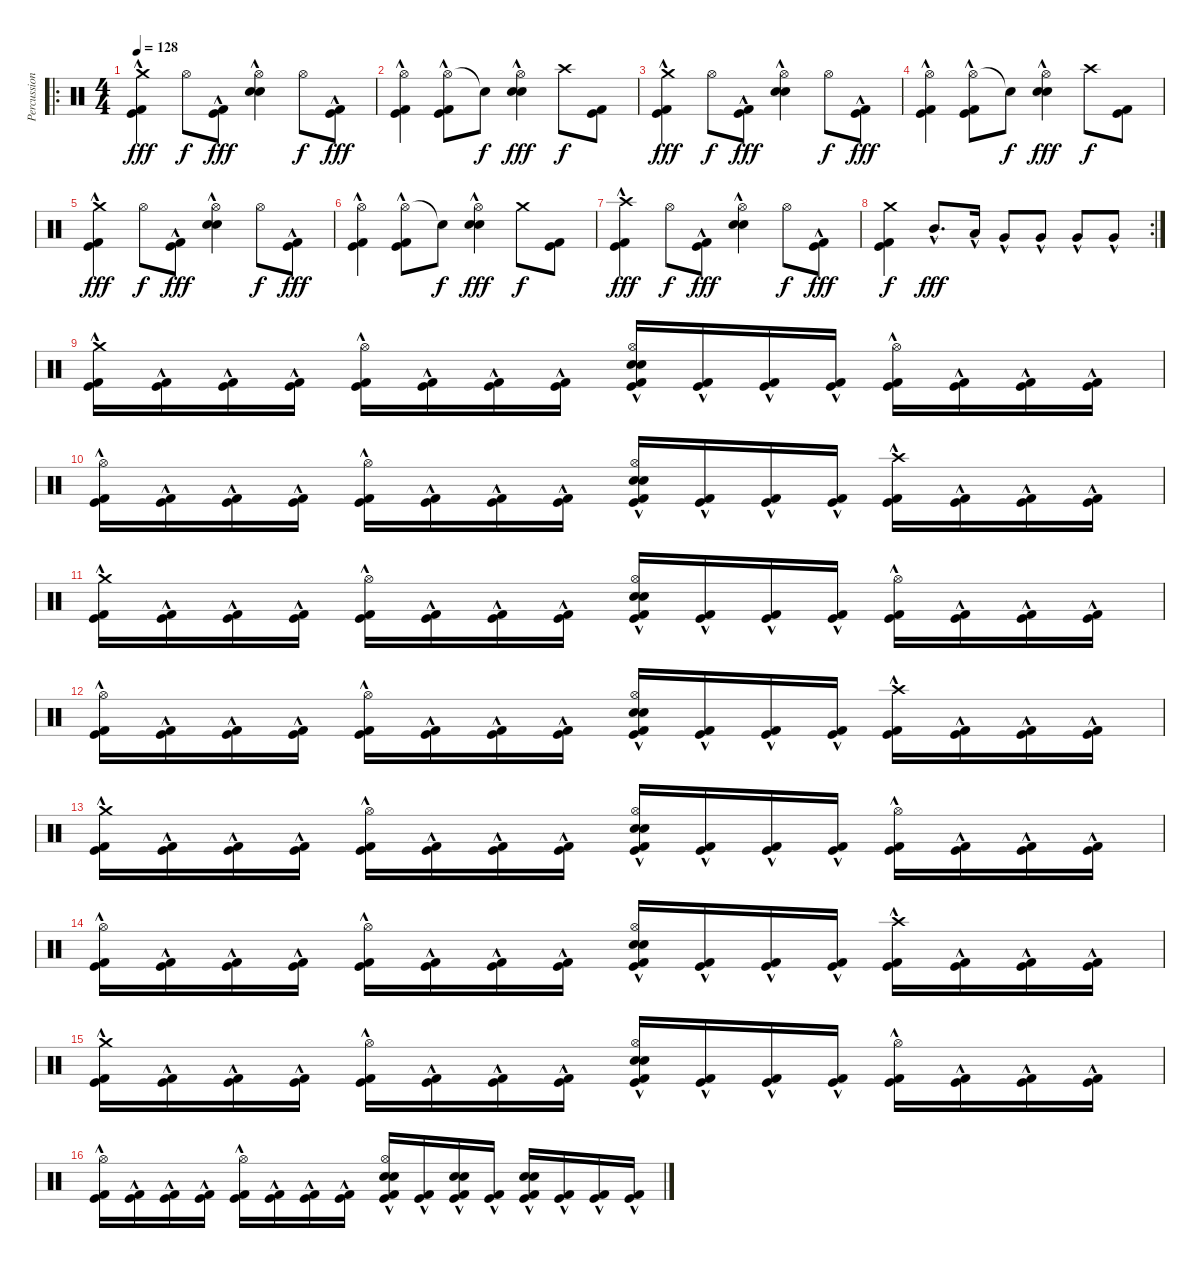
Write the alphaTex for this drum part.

\track ("Percussion" "Percussion") {instrument percussion}
\staff {score}
\articulation defaults
\ro
\ts (4 4)
\tempo 128
\clef neutral
\ks c
("Crash medium (hit)" "Kick (hit)"{hac} "Kick (hit) 2"{hac}).4{dy fff} "Hi-Hat (open)".8{dy f} ("Kick (hit)"{hac} "Kick (hit) 2"{hac}).8{dy fff} ("Hi-Hat (open)" "Electric Snare (hit)"{hac} "Snare (hit) 2"{hac}).4 "Hi-Hat (open)".8{dy f} ("Kick (hit)"{hac} "Kick (hit) 2"{hac}).8{dy fff} |
("Hi-Hat (open)" "Kick (hit)"{hac} "Kick (hit) 2"{hac}).4 ("Hi-Hat (open)" "Kick (hit)"{hac} "Kick (hit) 2"{hac}).8 "Snare (hit)"{t}.8{dy f} ("Hi-Hat (open)" "Electric Snare (hit)"{hac} "Snare (hit) 2"{hac}).4{dy fff} "Crash high (hit)".8{dy f} ("Kick (hit)" "Kick (hit) 2").8 |
("Crash medium (hit)" "Kick (hit)"{hac} "Kick (hit) 2"{hac}).4{dy fff} "Hi-Hat (open)".8{dy f} ("Kick (hit)"{hac} "Kick (hit) 2"{hac}).8{dy fff} ("Hi-Hat (open)" "Electric Snare (hit)"{hac} "Snare (hit) 2"{hac}).4 "Hi-Hat (open)".8{dy f} ("Kick (hit)"{hac} "Kick (hit) 2"{hac}).8{dy fff} |
("Hi-Hat (open)" "Kick (hit)"{hac} "Kick (hit) 2"{hac}).4 ("Hi-Hat (open)" "Kick (hit)"{hac} "Kick (hit) 2"{hac}).8 "Snare (hit)"{t}.8{dy f} ("Hi-Hat (open)" "Electric Snare (hit)"{hac} "Snare (hit) 2"{hac}).4{dy fff} "Crash high (hit)".8{dy f} ("Kick (hit)" "Kick (hit) 2").8 |
("Crash medium (hit)" "Kick (hit)"{hac} "Kick (hit) 2"{hac}).4{dy fff} "Hi-Hat (open)".8{dy f} ("Kick (hit)"{hac} "Kick (hit) 2"{hac}).8{dy fff} ("Hi-Hat (open)" "Electric Snare (hit)"{hac} "Snare (hit) 2"{hac}).4 "Hi-Hat (open)".8{dy f} ("Kick (hit)"{hac} "Kick (hit) 2"{hac}).8{dy fff} |
("Hi-Hat (open)" "Kick (hit)"{hac} "Kick (hit) 2"{hac}).4 ("Hi-Hat (open)" "Kick (hit)"{hac} "Kick (hit) 2"{hac}).8 "Snare (hit)"{t}.8{dy f} ("Hi-Hat (open)" "Electric Snare (hit)"{hac} "Snare (hit) 2"{hac}).4{dy fff} "Crash medium (hit)".8{dy f} ("Kick (hit)" "Kick (hit) 2").8 |
("Crash high (hit)" "Kick (hit)"{hac} "Kick (hit) 2"{hac}).4{dy fff} "Hi-Hat (open)".8{dy f} ("Kick (hit)"{hac} "Kick (hit) 2"{hac}).8{dy fff} ("Hi-Hat (open)" "Electric Snare (hit)"{hac} "Snare (hit) 2"{hac}).4 "Hi-Hat (open)".8{dy f} ("Kick (hit)"{hac} "Kick (hit) 2"{hac}).8{dy fff} |
\rc 2
("Crash medium (hit)" "Kick (hit)" "Kick (hit) 2").4{dy f} "Mid Tom (hit)"{hac}.8{d dy fff} "Low Tom (hit)"{hac}.16 "Very Low Tom (hit)"{hac}.8 "Very Low Tom (hit)"{hac}.8 "Very Low Tom (hit)"{hac}.8 "Very Low Tom (hit)"{hac}.8 |
("Crash medium (hit)"{hac} "Kick (hit)"{hac} "Kick (hit) 2"{hac}).16 ("Kick (hit)"{hac} "Kick (hit) 2"{hac}).16 ("Kick (hit)"{hac} "Kick (hit) 2"{hac}).16 ("Kick (hit)"{hac} "Kick (hit) 2"{hac}).16 ("Hi-Hat (open)"{hac} "Kick (hit)"{hac} "Kick (hit) 2"{hac}).16 ("Kick (hit)"{hac} "Kick (hit) 2"{hac}).16 ("Kick (hit)"{hac} "Kick (hit) 2"{hac}).16 ("Kick (hit)"{hac} "Kick (hit) 2"{hac}).16 ("Hi-Hat (open)"{hac} "Electric Snare (hit)"{hac} "Snare (hit) 2"{hac} "Kick (hit)"{hac} "Kick (hit) 2"{hac}).16 ("Kick (hit)"{hac} "Kick (hit) 2"{hac}).16 ("Kick (hit)"{hac} "Kick (hit) 2"{hac}).16 ("Kick (hit)"{hac} "Kick (hit) 2"{hac}).16 ("Hi-Hat (open)"{hac} "Kick (hit)"{hac} "Kick (hit) 2"{hac}).16 ("Kick (hit)"{hac} "Kick (hit) 2"{hac}).16 ("Kick (hit)"{hac} "Kick (hit) 2"{hac}).16 ("Kick (hit)"{hac} "Kick (hit) 2"{hac}).16 |
("Hi-Hat (open)"{hac} "Kick (hit)"{hac} "Kick (hit) 2"{hac}).16 ("Kick (hit)"{hac} "Kick (hit) 2"{hac}).16 ("Kick (hit)"{hac} "Kick (hit) 2"{hac}).16 ("Kick (hit)"{hac} "Kick (hit) 2"{hac}).16 ("Hi-Hat (open)"{hac} "Kick (hit)"{hac} "Kick (hit) 2"{hac}).16 ("Kick (hit)"{hac} "Kick (hit) 2"{hac}).16 ("Kick (hit)"{hac} "Kick (hit) 2"{hac}).16 ("Kick (hit)"{hac} "Kick (hit) 2"{hac}).16 ("Hi-Hat (open)"{hac} "Electric Snare (hit)"{hac} "Snare (hit) 2"{hac} "Kick (hit)"{hac} "Kick (hit) 2"{hac}).16 ("Kick (hit)"{hac} "Kick (hit) 2"{hac}).16 ("Kick (hit)"{hac} "Kick (hit) 2"{hac}).16 ("Kick (hit)"{hac} "Kick (hit) 2"{hac}).16 ("Crash high (hit)"{hac} "Kick (hit)"{hac} "Kick (hit) 2"{hac}).16 ("Kick (hit)"{hac} "Kick (hit) 2"{hac}).16 ("Kick (hit)"{hac} "Kick (hit) 2"{hac}).16 ("Kick (hit)"{hac} "Kick (hit) 2"{hac}).16 |
("Crash medium (hit)"{hac} "Kick (hit)"{hac} "Kick (hit) 2"{hac}).16 ("Kick (hit)"{hac} "Kick (hit) 2"{hac}).16 ("Kick (hit)"{hac} "Kick (hit) 2"{hac}).16 ("Kick (hit)"{hac} "Kick (hit) 2"{hac}).16 ("Hi-Hat (open)"{hac} "Kick (hit)"{hac} "Kick (hit) 2"{hac}).16 ("Kick (hit)"{hac} "Kick (hit) 2"{hac}).16 ("Kick (hit)"{hac} "Kick (hit) 2"{hac}).16 ("Kick (hit)"{hac} "Kick (hit) 2"{hac}).16 ("Hi-Hat (open)"{hac} "Electric Snare (hit)"{hac} "Snare (hit) 2"{hac} "Kick (hit)"{hac} "Kick (hit) 2"{hac}).16 ("Kick (hit)"{hac} "Kick (hit) 2"{hac}).16 ("Kick (hit)"{hac} "Kick (hit) 2"{hac}).16 ("Kick (hit)"{hac} "Kick (hit) 2"{hac}).16 ("Hi-Hat (open)"{hac} "Kick (hit)"{hac} "Kick (hit) 2"{hac}).16 ("Kick (hit)"{hac} "Kick (hit) 2"{hac}).16 ("Kick (hit)"{hac} "Kick (hit) 2"{hac}).16 ("Kick (hit)"{hac} "Kick (hit) 2"{hac}).16 |
("Hi-Hat (open)"{hac} "Kick (hit)"{hac} "Kick (hit) 2"{hac}).16 ("Kick (hit)"{hac} "Kick (hit) 2"{hac}).16 ("Kick (hit)"{hac} "Kick (hit) 2"{hac}).16 ("Kick (hit)"{hac} "Kick (hit) 2"{hac}).16 ("Hi-Hat (open)"{hac} "Kick (hit)"{hac} "Kick (hit) 2"{hac}).16 ("Kick (hit)"{hac} "Kick (hit) 2"{hac}).16 ("Kick (hit)"{hac} "Kick (hit) 2"{hac}).16 ("Kick (hit)"{hac} "Kick (hit) 2"{hac}).16 ("Hi-Hat (open)"{hac} "Electric Snare (hit)"{hac} "Snare (hit) 2"{hac} "Kick (hit)"{hac} "Kick (hit) 2"{hac}).16 ("Kick (hit)"{hac} "Kick (hit) 2"{hac}).16 ("Kick (hit)"{hac} "Kick (hit) 2"{hac}).16 ("Kick (hit)"{hac} "Kick (hit) 2"{hac}).16 ("Crash high (hit)"{hac} "Kick (hit)"{hac} "Kick (hit) 2"{hac}).16 ("Kick (hit)"{hac} "Kick (hit) 2"{hac}).16 ("Kick (hit)"{hac} "Kick (hit) 2"{hac}).16 ("Kick (hit)"{hac} "Kick (hit) 2"{hac}).16 |
("Crash medium (hit)"{hac} "Kick (hit)"{hac} "Kick (hit) 2"{hac}).16 ("Kick (hit)"{hac} "Kick (hit) 2"{hac}).16 ("Kick (hit)"{hac} "Kick (hit) 2"{hac}).16 ("Kick (hit)"{hac} "Kick (hit) 2"{hac}).16 ("Hi-Hat (open)"{hac} "Kick (hit)"{hac} "Kick (hit) 2"{hac}).16 ("Kick (hit)"{hac} "Kick (hit) 2"{hac}).16 ("Kick (hit)"{hac} "Kick (hit) 2"{hac}).16 ("Kick (hit)"{hac} "Kick (hit) 2"{hac}).16 ("Hi-Hat (open)"{hac} "Electric Snare (hit)"{hac} "Snare (hit) 2"{hac} "Kick (hit)"{hac} "Kick (hit) 2"{hac}).16 ("Kick (hit)"{hac} "Kick (hit) 2"{hac}).16 ("Kick (hit)"{hac} "Kick (hit) 2"{hac}).16 ("Kick (hit)"{hac} "Kick (hit) 2"{hac}).16 ("Hi-Hat (open)"{hac} "Kick (hit)"{hac} "Kick (hit) 2"{hac}).16 ("Kick (hit)"{hac} "Kick (hit) 2"{hac}).16 ("Kick (hit)"{hac} "Kick (hit) 2"{hac}).16 ("Kick (hit)"{hac} "Kick (hit) 2"{hac}).16 |
("Hi-Hat (open)"{hac} "Kick (hit)"{hac} "Kick (hit) 2"{hac}).16 ("Kick (hit)"{hac} "Kick (hit) 2"{hac}).16 ("Kick (hit)"{hac} "Kick (hit) 2"{hac}).16 ("Kick (hit)"{hac} "Kick (hit) 2"{hac}).16 ("Hi-Hat (open)"{hac} "Kick (hit)"{hac} "Kick (hit) 2"{hac}).16 ("Kick (hit)"{hac} "Kick (hit) 2"{hac}).16 ("Kick (hit)"{hac} "Kick (hit) 2"{hac}).16 ("Kick (hit)"{hac} "Kick (hit) 2"{hac}).16 ("Hi-Hat (open)"{hac} "Electric Snare (hit)"{hac} "Snare (hit) 2"{hac} "Kick (hit)"{hac} "Kick (hit) 2"{hac}).16 ("Kick (hit)"{hac} "Kick (hit) 2"{hac}).16 ("Kick (hit)"{hac} "Kick (hit) 2"{hac}).16 ("Kick (hit)"{hac} "Kick (hit) 2"{hac}).16 ("Crash high (hit)"{hac} "Kick (hit)"{hac} "Kick (hit) 2"{hac}).16 ("Kick (hit)"{hac} "Kick (hit) 2"{hac}).16 ("Kick (hit)"{hac} "Kick (hit) 2"{hac}).16 ("Kick (hit)"{hac} "Kick (hit) 2"{hac}).16 |
("Crash medium (hit)"{hac} "Kick (hit)"{hac} "Kick (hit) 2"{hac}).16 ("Kick (hit)"{hac} "Kick (hit) 2"{hac}).16 ("Kick (hit)"{hac} "Kick (hit) 2"{hac}).16 ("Kick (hit)"{hac} "Kick (hit) 2"{hac}).16 ("Hi-Hat (open)"{hac} "Kick (hit)"{hac} "Kick (hit) 2"{hac}).16 ("Kick (hit)"{hac} "Kick (hit) 2"{hac}).16 ("Kick (hit)"{hac} "Kick (hit) 2"{hac}).16 ("Kick (hit)"{hac} "Kick (hit) 2"{hac}).16 ("Hi-Hat (open)"{hac} "Electric Snare (hit)"{hac} "Snare (hit) 2"{hac} "Kick (hit)"{hac} "Kick (hit) 2"{hac}).16 ("Kick (hit)"{hac} "Kick (hit) 2"{hac}).16 ("Kick (hit)"{hac} "Kick (hit) 2"{hac}).16 ("Kick (hit)"{hac} "Kick (hit) 2"{hac}).16 ("Hi-Hat (open)"{hac} "Kick (hit)"{hac} "Kick (hit) 2"{hac}).16 ("Kick (hit)"{hac} "Kick (hit) 2"{hac}).16 ("Kick (hit)"{hac} "Kick (hit) 2"{hac}).16 ("Kick (hit)"{hac} "Kick (hit) 2"{hac}).16 |
("Hi-Hat (open)"{hac} "Kick (hit)"{hac} "Kick (hit) 2"{hac}).16 ("Kick (hit)"{hac} "Kick (hit) 2"{hac}).16 ("Kick (hit)"{hac} "Kick (hit) 2"{hac}).16 ("Kick (hit)"{hac} "Kick (hit) 2"{hac}).16 ("Hi-Hat (open)"{hac} "Kick (hit)"{hac} "Kick (hit) 2"{hac}).16 ("Kick (hit)"{hac} "Kick (hit) 2"{hac}).16 ("Kick (hit)"{hac} "Kick (hit) 2"{hac}).16 ("Kick (hit)"{hac} "Kick (hit) 2"{hac}).16 ("Hi-Hat (open)"{hac} "Electric Snare (hit)"{hac} "Snare (hit) 2"{hac} "Kick (hit)"{hac} "Kick (hit) 2"{hac}).16 ("Kick (hit)"{hac} "Kick (hit) 2"{hac}).16 ("Electric Snare (hit)"{hac} "Snare (hit) 2"{hac} "Kick (hit)"{hac} "Kick (hit) 2"{hac}).16 ("Kick (hit)"{hac} "Kick (hit) 2"{hac}).16 ("Electric Snare (hit)"{hac} "Snare (hit) 2"{hac} "Kick (hit)"{hac} "Kick (hit) 2"{hac}).16 ("Kick (hit)"{hac} "Kick (hit) 2"{hac}).16 ("Kick (hit)"{hac} "Kick (hit) 2"{hac}).16 ("Kick (hit)"{hac} "Kick (hit) 2"{hac}).16
